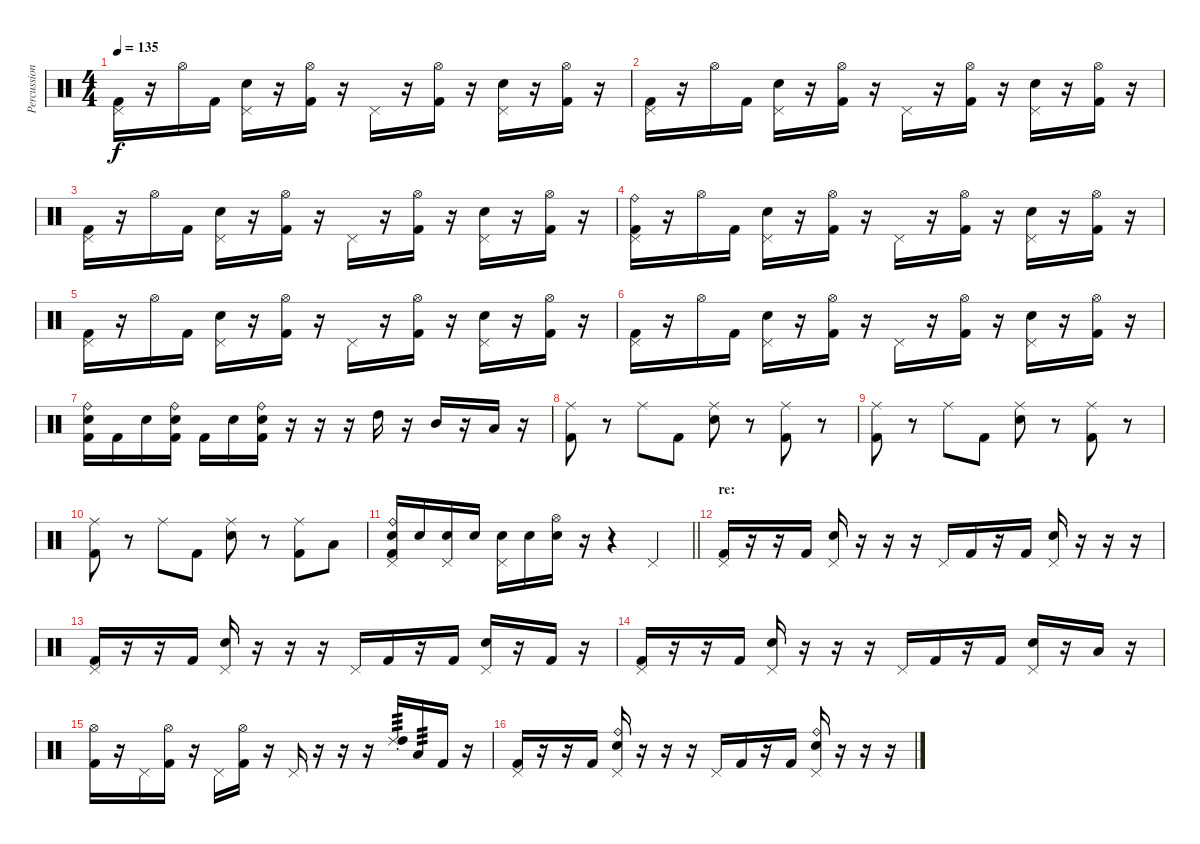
\track ("Percussion" "Percussion") {instrument percussion}
\staff {score}
\articulation defaults
\ts (4 4)
\tempo 135
\clef neutral
\ks c
("Pedal Hi-Hat (hit)" "Kick (hit) 2").16{dy f} r.16 "Hi-Hat (open)".16 "Kick (hit) 2".16 ("Electric Snare (hit)" "Pedal Hi-Hat (hit)").16 r.16 ("Hi-Hat (open)" "Kick (hit) 2").16 r.16 "Pedal Hi-Hat (hit)".16 r.16 ("Hi-Hat (open)" "Kick (hit) 2").16 r.16 ("Electric Snare (hit)" "Pedal Hi-Hat (hit)").16 r.16 ("Hi-Hat (open)" "Kick (hit) 2").16 r.16 |
("Pedal Hi-Hat (hit)" "Kick (hit) 2").16 r.16 "Hi-Hat (open)".16 "Kick (hit) 2".16 ("Electric Snare (hit)" "Pedal Hi-Hat (hit)").16 r.16 ("Hi-Hat (open)" "Kick (hit) 2").16 r.16 "Pedal Hi-Hat (hit)".16 r.16 ("Hi-Hat (open)" "Kick (hit) 2").16 r.16 ("Electric Snare (hit)" "Pedal Hi-Hat (hit)").16 r.16 ("Hi-Hat (open)" "Kick (hit) 2").16 r.16 |
("Pedal Hi-Hat (hit)" "Kick (hit) 2").16 r.16 "Hi-Hat (open)".16 "Kick (hit) 2".16 ("Electric Snare (hit)" "Pedal Hi-Hat (hit)").16 r.16 ("Hi-Hat (open)" "Kick (hit) 2").16 r.16 "Pedal Hi-Hat (hit)".16 r.16 ("Hi-Hat (open)" "Kick (hit) 2").16 r.16 ("Electric Snare (hit)" "Pedal Hi-Hat (hit)").16 r.16 ("Hi-Hat (open)" "Kick (hit) 2").16 r.16 |
("Ride (bell)" "Pedal Hi-Hat (hit)" "Kick (hit) 2").16 r.16 "Hi-Hat (open)".16 "Kick (hit) 2".16 ("Electric Snare (hit)" "Pedal Hi-Hat (hit)").16 r.16 ("Hi-Hat (open)" "Kick (hit) 2").16 r.16 "Pedal Hi-Hat (hit)".16 r.16 ("Hi-Hat (open)" "Kick (hit) 2").16 r.16 ("Electric Snare (hit)" "Pedal Hi-Hat (hit)").16 r.16 ("Hi-Hat (open)" "Kick (hit) 2").16 r.16 |
("Pedal Hi-Hat (hit)" "Kick (hit) 2").16 r.16 "Hi-Hat (open)".16 "Kick (hit) 2".16 ("Electric Snare (hit)" "Pedal Hi-Hat (hit)").16 r.16 ("Hi-Hat (open)" "Kick (hit) 2").16 r.16 "Pedal Hi-Hat (hit)".16 r.16 ("Hi-Hat (open)" "Kick (hit) 2").16 r.16 ("Electric Snare (hit)" "Pedal Hi-Hat (hit)").16 r.16 ("Hi-Hat (open)" "Kick (hit) 2").16 r.16 |
("Pedal Hi-Hat (hit)" "Kick (hit) 2").16 r.16 "Hi-Hat (open)".16 "Kick (hit) 2".16 ("Electric Snare (hit)" "Pedal Hi-Hat (hit)").16 r.16 ("Hi-Hat (open)" "Kick (hit) 2").16 r.16 "Pedal Hi-Hat (hit)".16 r.16 ("Hi-Hat (open)" "Kick (hit) 2").16 r.16 ("Electric Snare (hit)" "Pedal Hi-Hat (hit)").16 r.16 ("Hi-Hat (open)" "Kick (hit) 2").16 r.16 |
("Ride (bell)" "Electric Snare (hit)" "Kick (hit) 2").16 "Kick (hit) 2".16 "Electric Snare (hit)".16 ("Ride (bell)" "Electric Snare (hit)" "Kick (hit) 2").16 "Kick (hit) 2".16 "Electric Snare (hit)".16 ("Ride (bell)" "Electric Snare (hit)" "Kick (hit) 2").16 r.16 r.16 r.16 "High Tom (hit)".16 r.16 "Mid Tom (hit)".16 r.16 "Low Tom (hit)".16 r.16 |
("Ride (middle)" "Kick (hit) 2").8 r.8 "Ride (middle)".8 "Kick (hit) 2".8 ("Ride (middle)" "Electric Snare (hit)").8 r.8 ("Ride (middle)" "Kick (hit) 2").8 r.8 |
("Ride (middle)" "Kick (hit) 2").8 r.8 "Ride (middle)".8 "Kick (hit) 2".8 ("Ride (middle)" "Electric Snare (hit)").8 r.8 ("Ride (middle)" "Kick (hit) 2").8 r.8 |
("Ride (middle)" "Kick (hit) 2").8 r.8 "Ride (middle)".8 "Kick (hit) 2".8 ("Ride (middle)" "Electric Snare (hit)").8 r.8 ("Ride (middle)" "Kick (hit) 2").8 "Low Tom (hit)".8 |
\barLineRight lightlight
("Ride (bell)" "Electric Snare (hit)" "Pedal Hi-Hat (hit)" "Kick (hit) 2").16 "Electric Snare (hit)".16 ("Electric Snare (hit)" "Pedal Hi-Hat (hit)").16 "Electric Snare (hit)".16 ("Electric Snare (hit)" "Pedal Hi-Hat (hit)").16 "Electric Snare (hit)".16 ("Hi-Hat (open)" "Electric Snare (hit)").16 r.16 r.4 "Pedal Hi-Hat (hit)".4 |
\section ("" "re:")
("Pedal Hi-Hat (hit)" "Kick (hit) 2").16 r.16 r.16 "Kick (hit) 2".16 ("Electric Snare (hit)" "Pedal Hi-Hat (hit)").16 r.16 r.16 r.16 "Pedal Hi-Hat (hit)".16 "Kick (hit) 2".16 r.16 "Kick (hit) 2".16 ("Electric Snare (hit)" "Pedal Hi-Hat (hit)").16 r.16 r.16 r.16 |
("Pedal Hi-Hat (hit)" "Kick (hit) 2").16 r.16 r.16 "Kick (hit) 2".16 ("Electric Snare (hit)" "Pedal Hi-Hat (hit)").16 r.16 r.16 r.16 "Pedal Hi-Hat (hit)".16 "Kick (hit) 2".16 r.16 "Kick (hit) 2".16 ("Electric Snare (hit)" "Pedal Hi-Hat (hit)").16 r.16 "Kick (hit) 2".16 r.16 |
("Pedal Hi-Hat (hit)" "Kick (hit) 2").16 r.16 r.16 "Kick (hit) 2".16 ("Electric Snare (hit)" "Pedal Hi-Hat (hit)").16 r.16 r.16 r.16 "Pedal Hi-Hat (hit)".16 "Kick (hit) 2".16 r.16 "Kick (hit) 2".16 ("Electric Snare (hit)" "Pedal Hi-Hat (hit)").16 r.16 "Low Tom (hit)".16 r.16 |
("Hi-Hat (open)" "Kick (hit) 2").16 r.16 "Pedal Hi-Hat (hit)".16 ("Hi-Hat (open)" "Kick (hit) 2").16 r.16 "Pedal Hi-Hat (hit)".16 ("Hi-Hat (open)" "Kick (hit) 2").16 r.16 "Pedal Hi-Hat (hit)".16 r.16 r.16 r.16 ("Ride (choke) 2" "High Tom (hit)").16{tp 3} "Low Tom (hit)".16{tp 3} "Kick (hit) 2".16 r.16 |
("Pedal Hi-Hat (hit)" "Kick (hit) 2").16 r.16 r.16 "Kick (hit) 2".16 ("Ride (bell)" "Electric Snare (hit)" "Pedal Hi-Hat (hit)").16 r.16 r.16 r.16 "Pedal Hi-Hat (hit)".16 "Kick (hit) 2".16 r.16 "Kick (hit) 2".16 ("Ride (bell)" "Electric Snare (hit)" "Pedal Hi-Hat (hit)").16 r.16 r.16 r.16
